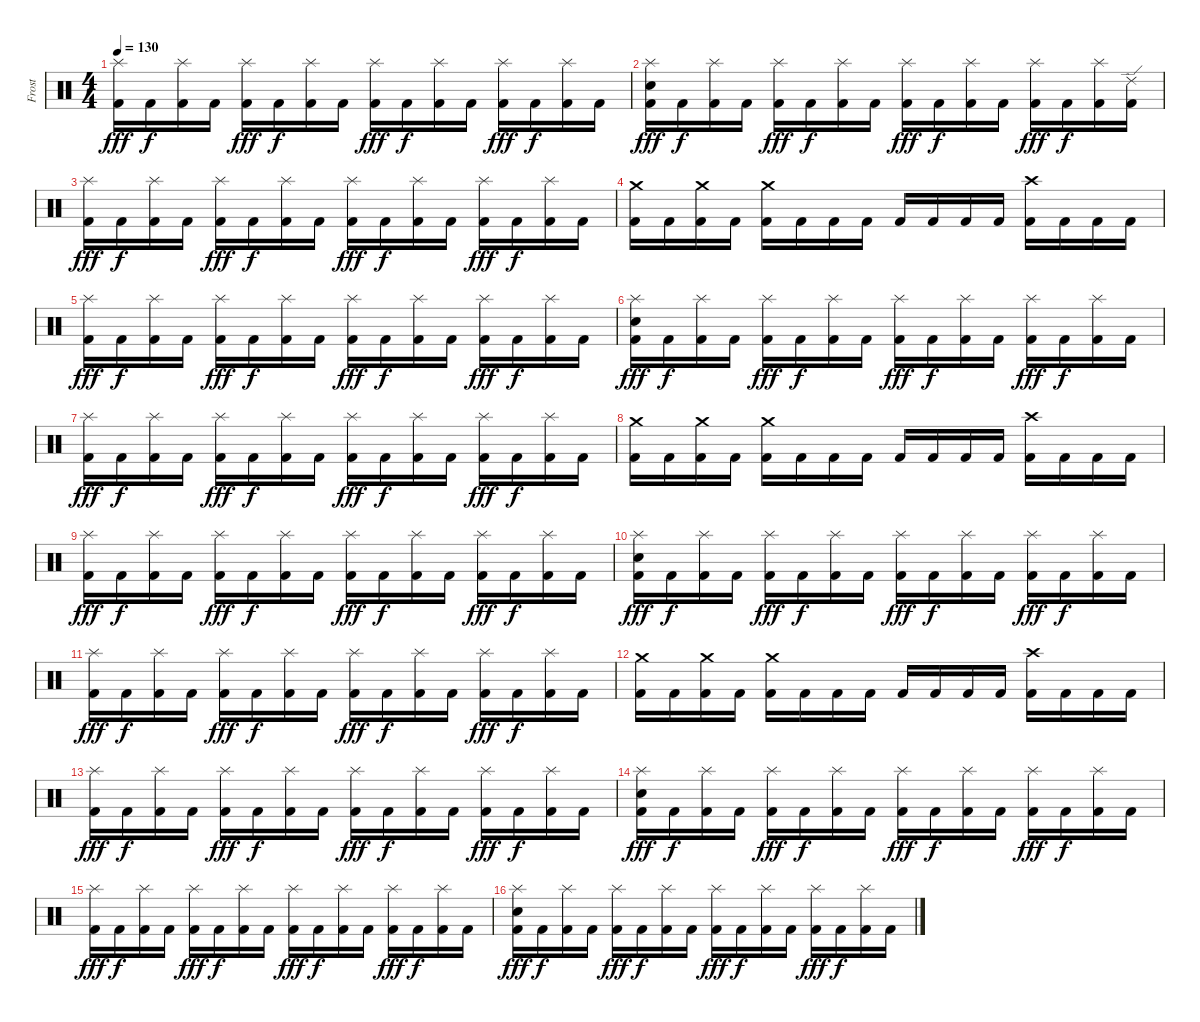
\track ("Frost" "Frost") {instrument percussion}
\staff {score}
\articulation defaults
\ts (4 4)
\tempo 130
\clef neutral
\ks c
("Kick (hit) 2" "Splash (hit)").16{dy fff} "Kick (hit) 2".16{dy f} ("Kick (hit) 2" "Splash (hit)").16 "Kick (hit) 2".16 ("Kick (hit) 2" "Splash (hit)").16{dy fff} "Kick (hit) 2".16{dy f} ("Kick (hit) 2" "Splash (hit)").16 "Kick (hit) 2".16 ("Kick (hit) 2" "Splash (hit)").16{dy fff} "Kick (hit) 2".16{dy f} ("Kick (hit) 2" "Splash (hit)").16 "Kick (hit) 2".16 ("Kick (hit) 2" "Splash (hit)").16{dy fff} "Kick (hit) 2".16{dy f} ("Kick (hit) 2" "Splash (hit)").16 "Kick (hit) 2".16 |
("Kick (hit) 2" "Splash (hit)" "Snare (hit) 2").16{dy fff} "Kick (hit) 2".16{dy f} ("Kick (hit) 2" "Splash (hit)").16 "Kick (hit) 2".16 ("Kick (hit) 2" "Splash (hit)").16{dy fff} "Kick (hit) 2".16{dy f} ("Kick (hit) 2" "Splash (hit)").16 "Kick (hit) 2".16 ("Kick (hit) 2" "Splash (hit)").16{dy fff} "Kick (hit) 2".16{dy f} ("Kick (hit) 2" "Splash (hit)").16 "Kick (hit) 2".16 ("Kick (hit) 2" "Splash (hit)").16{dy fff} "Kick (hit) 2".16{dy f} ("Kick (hit) 2" "Splash (hit)").16 ("Kick (hit) 2" "Ride (edge) 2").16 |
("Kick (hit) 2" "Splash (hit)").16{dy fff} "Kick (hit) 2".16{dy f} ("Kick (hit) 2" "Splash (hit)").16 "Kick (hit) 2".16 ("Kick (hit) 2" "Splash (hit)").16{dy fff} "Kick (hit) 2".16{dy f} ("Kick (hit) 2" "Splash (hit)").16 "Kick (hit) 2".16 ("Kick (hit) 2" "Splash (hit)").16{dy fff} "Kick (hit) 2".16{dy f} ("Kick (hit) 2" "Splash (hit)").16 "Kick (hit) 2".16 ("Kick (hit) 2" "Splash (hit)").16{dy fff} "Kick (hit) 2".16{dy f} ("Kick (hit) 2" "Splash (hit)").16 "Kick (hit) 2".16 |
("Kick (hit) 2" "Crash medium (hit)").16 "Kick (hit) 2".16 ("Kick (hit) 2" "Crash medium (hit)").16 "Kick (hit) 2".16 ("Kick (hit) 2" "Crash medium (hit)").16 "Kick (hit) 2".16 "Kick (hit) 2".16 "Kick (hit) 2".16 "Kick (hit) 2".16 "Kick (hit) 2".16 "Kick (hit) 2".16 "Kick (hit) 2".16 ("Kick (hit) 2" "Crash high (hit)").16 "Kick (hit) 2".16 "Kick (hit) 2".16 "Kick (hit) 2".16 |
("Kick (hit) 2" "Splash (hit)").16{dy fff} "Kick (hit) 2".16{dy f} ("Kick (hit) 2" "Splash (hit)").16 "Kick (hit) 2".16 ("Kick (hit) 2" "Splash (hit)").16{dy fff} "Kick (hit) 2".16{dy f} ("Kick (hit) 2" "Splash (hit)").16 "Kick (hit) 2".16 ("Kick (hit) 2" "Splash (hit)").16{dy fff} "Kick (hit) 2".16{dy f} ("Kick (hit) 2" "Splash (hit)").16 "Kick (hit) 2".16 ("Kick (hit) 2" "Splash (hit)").16{dy fff} "Kick (hit) 2".16{dy f} ("Kick (hit) 2" "Splash (hit)").16 "Kick (hit) 2".16 |
("Kick (hit) 2" "Splash (hit)" "Snare (hit) 2").16{dy fff} "Kick (hit) 2".16{dy f} ("Kick (hit) 2" "Splash (hit)").16 "Kick (hit) 2".16 ("Kick (hit) 2" "Splash (hit)").16{dy fff} "Kick (hit) 2".16{dy f} ("Kick (hit) 2" "Splash (hit)").16 "Kick (hit) 2".16 ("Kick (hit) 2" "Splash (hit)").16{dy fff} "Kick (hit) 2".16{dy f} ("Kick (hit) 2" "Splash (hit)").16 "Kick (hit) 2".16 ("Kick (hit) 2" "Splash (hit)").16{dy fff} "Kick (hit) 2".16{dy f} ("Kick (hit) 2" "Splash (hit)").16 "Kick (hit) 2".16 |
("Kick (hit) 2" "Splash (hit)").16{dy fff} "Kick (hit) 2".16{dy f} ("Kick (hit) 2" "Splash (hit)").16 "Kick (hit) 2".16 ("Kick (hit) 2" "Splash (hit)").16{dy fff} "Kick (hit) 2".16{dy f} ("Kick (hit) 2" "Splash (hit)").16 "Kick (hit) 2".16 ("Kick (hit) 2" "Splash (hit)").16{dy fff} "Kick (hit) 2".16{dy f} ("Kick (hit) 2" "Splash (hit)").16 "Kick (hit) 2".16 ("Kick (hit) 2" "Splash (hit)").16{dy fff} "Kick (hit) 2".16{dy f} ("Kick (hit) 2" "Splash (hit)").16 "Kick (hit) 2".16 |
("Kick (hit) 2" "Crash medium (hit)").16 "Kick (hit) 2".16 ("Kick (hit) 2" "Crash medium (hit)").16 "Kick (hit) 2".16 ("Kick (hit) 2" "Crash medium (hit)").16 "Kick (hit) 2".16 "Kick (hit) 2".16 "Kick (hit) 2".16 "Kick (hit) 2".16 "Kick (hit) 2".16 "Kick (hit) 2".16 "Kick (hit) 2".16 ("Kick (hit) 2" "Crash high (hit)").16 "Kick (hit) 2".16 "Kick (hit) 2".16 "Kick (hit) 2".16 |
("Kick (hit) 2" "Splash (hit)").16{dy fff} "Kick (hit) 2".16{dy f} ("Kick (hit) 2" "Splash (hit)").16 "Kick (hit) 2".16 ("Kick (hit) 2" "Splash (hit)").16{dy fff} "Kick (hit) 2".16{dy f} ("Kick (hit) 2" "Splash (hit)").16 "Kick (hit) 2".16 ("Kick (hit) 2" "Splash (hit)").16{dy fff} "Kick (hit) 2".16{dy f} ("Kick (hit) 2" "Splash (hit)").16 "Kick (hit) 2".16 ("Kick (hit) 2" "Splash (hit)").16{dy fff} "Kick (hit) 2".16{dy f} ("Kick (hit) 2" "Splash (hit)").16 "Kick (hit) 2".16 |
("Kick (hit) 2" "Splash (hit)" "Snare (hit) 2").16{dy fff} "Kick (hit) 2".16{dy f} ("Kick (hit) 2" "Splash (hit)").16 "Kick (hit) 2".16 ("Kick (hit) 2" "Splash (hit)").16{dy fff} "Kick (hit) 2".16{dy f} ("Kick (hit) 2" "Splash (hit)").16 "Kick (hit) 2".16 ("Kick (hit) 2" "Splash (hit)").16{dy fff} "Kick (hit) 2".16{dy f} ("Kick (hit) 2" "Splash (hit)").16 "Kick (hit) 2".16 ("Kick (hit) 2" "Splash (hit)").16{dy fff} "Kick (hit) 2".16{dy f} ("Kick (hit) 2" "Splash (hit)").16 "Kick (hit) 2".16 |
("Kick (hit) 2" "Splash (hit)").16{dy fff} "Kick (hit) 2".16{dy f} ("Kick (hit) 2" "Splash (hit)").16 "Kick (hit) 2".16 ("Kick (hit) 2" "Splash (hit)").16{dy fff} "Kick (hit) 2".16{dy f} ("Kick (hit) 2" "Splash (hit)").16 "Kick (hit) 2".16 ("Kick (hit) 2" "Splash (hit)").16{dy fff} "Kick (hit) 2".16{dy f} ("Kick (hit) 2" "Splash (hit)").16 "Kick (hit) 2".16 ("Kick (hit) 2" "Splash (hit)").16{dy fff} "Kick (hit) 2".16{dy f} ("Kick (hit) 2" "Splash (hit)").16 "Kick (hit) 2".16 |
("Kick (hit) 2" "Crash medium (hit)").16 "Kick (hit) 2".16 ("Kick (hit) 2" "Crash medium (hit)").16 "Kick (hit) 2".16 ("Kick (hit) 2" "Crash medium (hit)").16 "Kick (hit) 2".16 "Kick (hit) 2".16 "Kick (hit) 2".16 "Kick (hit) 2".16 "Kick (hit) 2".16 "Kick (hit) 2".16 "Kick (hit) 2".16 ("Kick (hit) 2" "Crash high (hit)").16 "Kick (hit) 2".16 "Kick (hit) 2".16 "Kick (hit) 2".16 |
("Kick (hit) 2" "Splash (hit)").16{dy fff} "Kick (hit) 2".16{dy f} ("Kick (hit) 2" "Splash (hit)").16 "Kick (hit) 2".16 ("Kick (hit) 2" "Splash (hit)").16{dy fff} "Kick (hit) 2".16{dy f} ("Kick (hit) 2" "Splash (hit)").16 "Kick (hit) 2".16 ("Kick (hit) 2" "Splash (hit)").16{dy fff} "Kick (hit) 2".16{dy f} ("Kick (hit) 2" "Splash (hit)").16 "Kick (hit) 2".16 ("Kick (hit) 2" "Splash (hit)").16{dy fff} "Kick (hit) 2".16{dy f} ("Kick (hit) 2" "Splash (hit)").16 "Kick (hit) 2".16 |
("Kick (hit) 2" "Splash (hit)" "Snare (hit) 2").16{dy fff} "Kick (hit) 2".16{dy f} ("Kick (hit) 2" "Splash (hit)").16 "Kick (hit) 2".16 ("Kick (hit) 2" "Splash (hit)").16{dy fff} "Kick (hit) 2".16{dy f} ("Kick (hit) 2" "Splash (hit)").16 "Kick (hit) 2".16 ("Kick (hit) 2" "Splash (hit)").16{dy fff} "Kick (hit) 2".16{dy f} ("Kick (hit) 2" "Splash (hit)").16 "Kick (hit) 2".16 ("Kick (hit) 2" "Splash (hit)").16{dy fff} "Kick (hit) 2".16{dy f} ("Kick (hit) 2" "Splash (hit)").16 "Kick (hit) 2".16 |
("Kick (hit) 2" "Splash (hit)").16{dy fff} "Kick (hit) 2".16{dy f} ("Kick (hit) 2" "Splash (hit)").16 "Kick (hit) 2".16 ("Kick (hit) 2" "Splash (hit)").16{dy fff} "Kick (hit) 2".16{dy f} ("Kick (hit) 2" "Splash (hit)").16 "Kick (hit) 2".16 ("Kick (hit) 2" "Splash (hit)").16{dy fff} "Kick (hit) 2".16{dy f} ("Kick (hit) 2" "Splash (hit)").16 "Kick (hit) 2".16 ("Kick (hit) 2" "Splash (hit)").16{dy fff} "Kick (hit) 2".16{dy f} ("Kick (hit) 2" "Splash (hit)").16 "Kick (hit) 2".16 |
("Kick (hit) 2" "Splash (hit)" "Snare (hit) 2").16{dy fff} "Kick (hit) 2".16{dy f} ("Kick (hit) 2" "Splash (hit)").16 "Kick (hit) 2".16 ("Kick (hit) 2" "Splash (hit)").16{dy fff} "Kick (hit) 2".16{dy f} ("Kick (hit) 2" "Splash (hit)").16 "Kick (hit) 2".16 ("Kick (hit) 2" "Splash (hit)").16{dy fff} "Kick (hit) 2".16{dy f} ("Kick (hit) 2" "Splash (hit)").16 "Kick (hit) 2".16 ("Kick (hit) 2" "Splash (hit)").16{dy fff} "Kick (hit) 2".16{dy f} ("Kick (hit) 2" "Splash (hit)").16 "Kick (hit) 2".16
